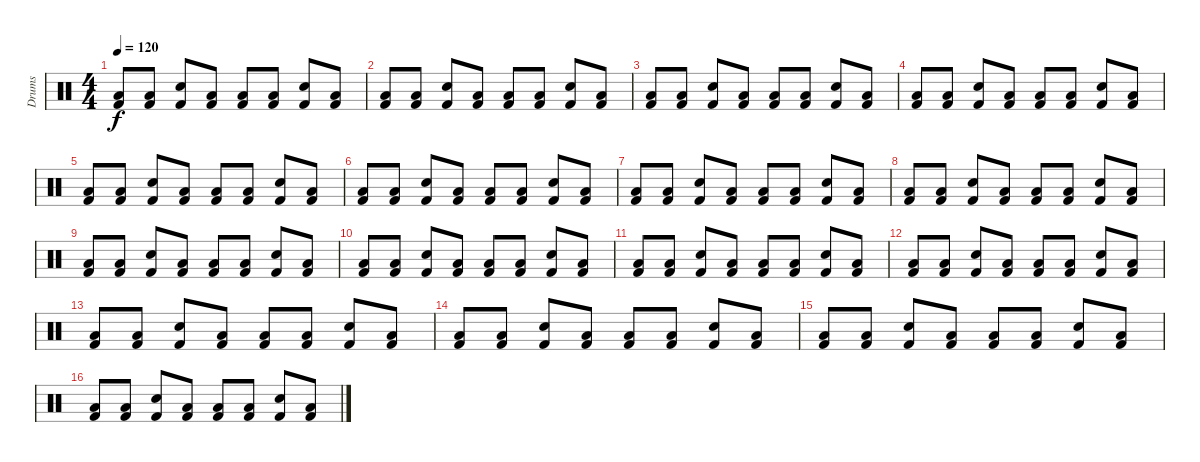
\track ("Drums" "Drums") {instrument percussion}
\staff {score}
\articulation defaults
\ts (4 4)
\tempo 120
\clef neutral
\ks c
("Kick (hit) 2" "Low Floor Tom (hit)").8{dy f} ("Kick (hit) 2" "Low Floor Tom (hit)").8 ("Kick (hit) 2" "Snare (hit) 2").8 ("Kick (hit) 2" "Low Floor Tom (hit)").8 ("Kick (hit) 2" "Low Floor Tom (hit)").8 ("Kick (hit) 2" "Low Floor Tom (hit)").8 ("Kick (hit) 2" "Snare (hit) 2").8 ("Kick (hit) 2" "Low Floor Tom (hit)").8 |
("Kick (hit) 2" "Low Floor Tom (hit)").8 ("Kick (hit) 2" "Low Floor Tom (hit)").8 ("Kick (hit) 2" "Snare (hit) 2").8 ("Kick (hit) 2" "Low Floor Tom (hit)").8 ("Kick (hit) 2" "Low Floor Tom (hit)").8 ("Kick (hit) 2" "Low Floor Tom (hit)").8 ("Kick (hit) 2" "Snare (hit) 2").8 ("Kick (hit) 2" "Low Floor Tom (hit)").8 |
("Kick (hit) 2" "Low Floor Tom (hit)").8 ("Kick (hit) 2" "Low Floor Tom (hit)").8 ("Kick (hit) 2" "Snare (hit) 2").8 ("Kick (hit) 2" "Low Floor Tom (hit)").8 ("Kick (hit) 2" "Low Floor Tom (hit)").8 ("Kick (hit) 2" "Low Floor Tom (hit)").8 ("Kick (hit) 2" "Snare (hit) 2").8 ("Kick (hit) 2" "Low Floor Tom (hit)").8 |
("Kick (hit) 2" "Low Floor Tom (hit)").8 ("Kick (hit) 2" "Low Floor Tom (hit)").8 ("Kick (hit) 2" "Snare (hit) 2").8 ("Kick (hit) 2" "Low Floor Tom (hit)").8 ("Kick (hit) 2" "Low Floor Tom (hit)").8 ("Kick (hit) 2" "Low Floor Tom (hit)").8 ("Kick (hit) 2" "Snare (hit) 2").8 ("Kick (hit) 2" "Low Floor Tom (hit)").8 |
("Kick (hit) 2" "Low Floor Tom (hit)").8 ("Kick (hit) 2" "Low Floor Tom (hit)").8 ("Kick (hit) 2" "Snare (hit) 2").8 ("Kick (hit) 2" "Low Floor Tom (hit)").8 ("Kick (hit) 2" "Low Floor Tom (hit)").8 ("Kick (hit) 2" "Low Floor Tom (hit)").8 ("Kick (hit) 2" "Snare (hit) 2").8 ("Kick (hit) 2" "Low Floor Tom (hit)").8 |
("Kick (hit) 2" "Low Floor Tom (hit)").8 ("Kick (hit) 2" "Low Floor Tom (hit)").8 ("Kick (hit) 2" "Snare (hit) 2").8 ("Kick (hit) 2" "Low Floor Tom (hit)").8 ("Kick (hit) 2" "Low Floor Tom (hit)").8 ("Kick (hit) 2" "Low Floor Tom (hit)").8 ("Kick (hit) 2" "Snare (hit) 2").8 ("Kick (hit) 2" "Low Floor Tom (hit)").8 |
("Kick (hit) 2" "Low Floor Tom (hit)").8 ("Kick (hit) 2" "Low Floor Tom (hit)").8 ("Kick (hit) 2" "Snare (hit) 2").8 ("Kick (hit) 2" "Low Floor Tom (hit)").8 ("Kick (hit) 2" "Low Floor Tom (hit)").8 ("Kick (hit) 2" "Low Floor Tom (hit)").8 ("Kick (hit) 2" "Snare (hit) 2").8 ("Kick (hit) 2" "Low Floor Tom (hit)").8 |
("Kick (hit) 2" "Low Floor Tom (hit)").8 ("Kick (hit) 2" "Low Floor Tom (hit)").8 ("Kick (hit) 2" "Snare (hit) 2").8 ("Kick (hit) 2" "Low Floor Tom (hit)").8 ("Kick (hit) 2" "Low Floor Tom (hit)").8 ("Kick (hit) 2" "Low Floor Tom (hit)").8 ("Kick (hit) 2" "Snare (hit) 2").8 ("Kick (hit) 2" "Low Floor Tom (hit)").8 |
("Kick (hit) 2" "Low Floor Tom (hit)").8 ("Kick (hit) 2" "Low Floor Tom (hit)").8 ("Kick (hit) 2" "Snare (hit) 2").8 ("Kick (hit) 2" "Low Floor Tom (hit)").8 ("Kick (hit) 2" "Low Floor Tom (hit)").8 ("Kick (hit) 2" "Low Floor Tom (hit)").8 ("Kick (hit) 2" "Snare (hit) 2").8 ("Kick (hit) 2" "Low Floor Tom (hit)").8 |
("Kick (hit) 2" "Low Floor Tom (hit)").8 ("Kick (hit) 2" "Low Floor Tom (hit)").8 ("Kick (hit) 2" "Snare (hit) 2").8 ("Kick (hit) 2" "Low Floor Tom (hit)").8 ("Kick (hit) 2" "Low Floor Tom (hit)").8 ("Kick (hit) 2" "Low Floor Tom (hit)").8 ("Kick (hit) 2" "Snare (hit) 2").8 ("Kick (hit) 2" "Low Floor Tom (hit)").8 |
("Kick (hit) 2" "Low Floor Tom (hit)").8 ("Kick (hit) 2" "Low Floor Tom (hit)").8 ("Kick (hit) 2" "Snare (hit) 2").8 ("Kick (hit) 2" "Low Floor Tom (hit)").8 ("Kick (hit) 2" "Low Floor Tom (hit)").8 ("Kick (hit) 2" "Low Floor Tom (hit)").8 ("Kick (hit) 2" "Snare (hit) 2").8 ("Kick (hit) 2" "Low Floor Tom (hit)").8 |
("Kick (hit) 2" "Low Floor Tom (hit)").8 ("Kick (hit) 2" "Low Floor Tom (hit)").8 ("Kick (hit) 2" "Snare (hit) 2").8 ("Kick (hit) 2" "Low Floor Tom (hit)").8 ("Kick (hit) 2" "Low Floor Tom (hit)").8 ("Kick (hit) 2" "Low Floor Tom (hit)").8 ("Kick (hit) 2" "Snare (hit) 2").8 ("Kick (hit) 2" "Low Floor Tom (hit)").8 |
("Kick (hit) 2" "Low Floor Tom (hit)").8 ("Kick (hit) 2" "Low Floor Tom (hit)").8 ("Kick (hit) 2" "Snare (hit) 2").8 ("Kick (hit) 2" "Low Floor Tom (hit)").8 ("Kick (hit) 2" "Low Floor Tom (hit)").8 ("Kick (hit) 2" "Low Floor Tom (hit)").8 ("Kick (hit) 2" "Snare (hit) 2").8 ("Kick (hit) 2" "Low Floor Tom (hit)").8 |
("Kick (hit) 2" "Low Floor Tom (hit)").8 ("Kick (hit) 2" "Low Floor Tom (hit)").8 ("Kick (hit) 2" "Snare (hit) 2").8 ("Kick (hit) 2" "Low Floor Tom (hit)").8 ("Kick (hit) 2" "Low Floor Tom (hit)").8 ("Kick (hit) 2" "Low Floor Tom (hit)").8 ("Kick (hit) 2" "Snare (hit) 2").8 ("Kick (hit) 2" "Low Floor Tom (hit)").8 |
("Kick (hit) 2" "Low Floor Tom (hit)").8 ("Kick (hit) 2" "Low Floor Tom (hit)").8 ("Kick (hit) 2" "Snare (hit) 2").8 ("Kick (hit) 2" "Low Floor Tom (hit)").8 ("Kick (hit) 2" "Low Floor Tom (hit)").8 ("Kick (hit) 2" "Low Floor Tom (hit)").8 ("Kick (hit) 2" "Snare (hit) 2").8 ("Kick (hit) 2" "Low Floor Tom (hit)").8 |
("Kick (hit) 2" "Low Floor Tom (hit)").8 ("Kick (hit) 2" "Low Floor Tom (hit)").8 ("Kick (hit) 2" "Snare (hit) 2").8 ("Kick (hit) 2" "Low Floor Tom (hit)").8 ("Kick (hit) 2" "Low Floor Tom (hit)").8 ("Kick (hit) 2" "Low Floor Tom (hit)").8 ("Kick (hit) 2" "Snare (hit) 2").8 ("Kick (hit) 2" "Low Floor Tom (hit)").8
